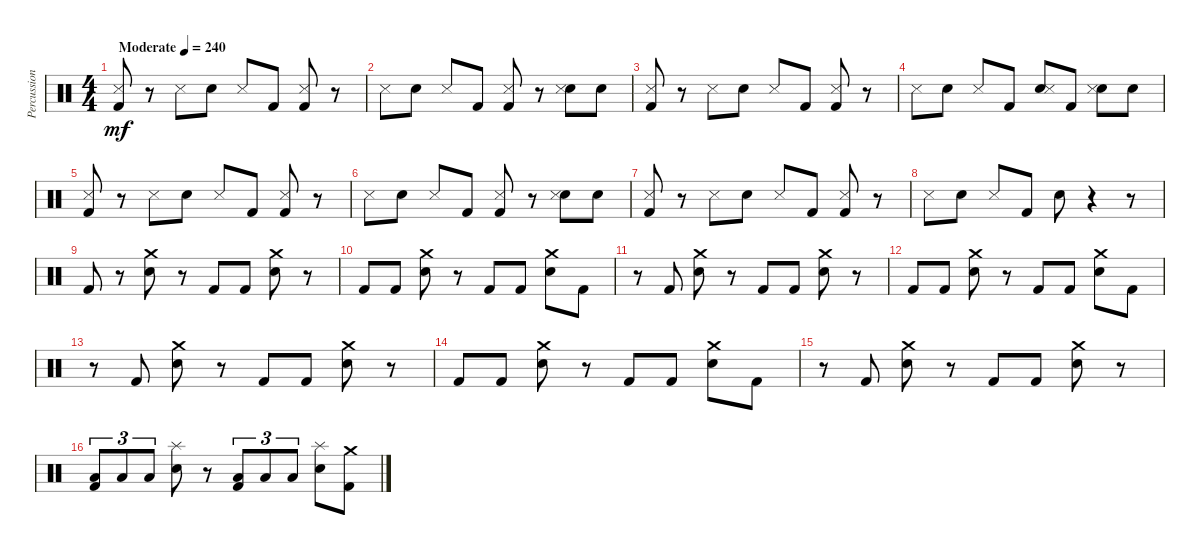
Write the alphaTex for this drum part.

\track ("Percussion" "Percussion") {instrument percussion}
\staff {score}
\articulation defaults
\ts (4 4)
\tempo (240 "Moderate")
\clef neutral
\ks c
("Kick (hit) 2" "Snare (side stick) 3").8{dy mf} r.8 "Snare (side stick) 3".8 "Electric Snare (hit)".8 "Snare (side stick) 3".8 "Kick (hit) 2".8 ("Kick (hit) 2" "Snare (side stick) 3").8 r.8 |
"Snare (side stick) 3".8 "Electric Snare (hit)".8 "Snare (side stick) 3".8 "Kick (hit) 2".8 ("Kick (hit) 2" "Snare (side stick) 3").8 r.8 ("Electric Snare (hit)" "Snare (side stick) 3").8 "Electric Snare (hit)".8 |
("Kick (hit) 2" "Snare (side stick) 3").8 r.8 "Snare (side stick) 3".8 "Electric Snare (hit)".8 "Snare (side stick) 3".8 "Kick (hit) 2".8 ("Kick (hit) 2" "Snare (side stick) 3").8 r.8 |
"Snare (side stick) 3".8 "Electric Snare (hit)".8 "Snare (side stick) 3".8 "Kick (hit) 2".8 ("Electric Snare (hit)" "Snare (side stick) 3").8 "Kick (hit) 2".8 ("Electric Snare (hit)" "Snare (side stick) 3").8 "Electric Snare (hit)".8 |
("Kick (hit) 2" "Snare (side stick) 3").8 r.8 "Snare (side stick) 3".8 "Electric Snare (hit)".8 "Snare (side stick) 3".8 "Kick (hit) 2".8 ("Kick (hit) 2" "Snare (side stick) 3").8 r.8 |
"Snare (side stick) 3".8 "Electric Snare (hit)".8 "Snare (side stick) 3".8 "Kick (hit) 2".8 ("Kick (hit) 2" "Snare (side stick) 3").8 r.8 ("Electric Snare (hit)" "Snare (side stick) 3").8 "Electric Snare (hit)".8 |
("Kick (hit) 2" "Snare (side stick) 3").8 r.8 "Snare (side stick) 3".8 "Electric Snare (hit)".8 "Snare (side stick) 3".8 "Kick (hit) 2".8 ("Kick (hit) 2" "Snare (side stick) 3").8 r.8 |
"Snare (side stick) 3".8 "Electric Snare (hit)".8 "Snare (side stick) 3".8 "Kick (hit) 2".8 "Electric Snare (hit)".8 r.4 r.8 |
"Kick (hit) 2".8 r.8 ("Electric Snare (hit)" "Crash medium (hit)").8 r.8 "Kick (hit) 2".8 "Kick (hit) 2".8 ("Electric Snare (hit)" "Crash medium (hit)").8 r.8 |
"Kick (hit) 2".8 "Kick (hit) 2".8 ("Electric Snare (hit)" "Crash medium (hit)").8 r.8 "Kick (hit) 2".8 "Kick (hit) 2".8 ("Electric Snare (hit)" "Crash medium (hit)").8 "Kick (hit) 2".8 |
r.8 "Kick (hit) 2".8 ("Electric Snare (hit)" "Crash medium (hit)").8 r.8 "Kick (hit) 2".8 "Kick (hit) 2".8 ("Electric Snare (hit)" "Crash medium (hit)").8 r.8 |
"Kick (hit) 2".8 "Kick (hit) 2".8 ("Electric Snare (hit)" "Crash medium (hit)").8 r.8 "Kick (hit) 2".8 "Kick (hit) 2".8 ("Electric Snare (hit)" "Crash medium (hit)").8 "Kick (hit) 2".8 |
r.8 "Kick (hit) 2".8 ("Electric Snare (hit)" "Crash medium (hit)").8 r.8 "Kick (hit) 2".8 "Kick (hit) 2".8 ("Electric Snare (hit)" "Crash medium (hit)").8 r.8 |
"Kick (hit) 2".8 "Kick (hit) 2".8 ("Electric Snare (hit)" "Crash medium (hit)").8 r.8 "Kick (hit) 2".8 "Kick (hit) 2".8 ("Electric Snare (hit)" "Crash medium (hit)").8 "Kick (hit) 2".8 |
r.8 "Kick (hit) 2".8 ("Electric Snare (hit)" "Crash medium (hit)").8 r.8 "Kick (hit) 2".8 "Kick (hit) 2".8 ("Electric Snare (hit)" "Crash medium (hit)").8 r.8 |
("Low Tom (hit)" "Kick (hit) 2").8{tu (3 2)} "Low Tom (hit)".8{tu (3 2)} "Low Tom (hit)".8{tu (3 2)} ("Electric Snare (hit)" "Splash (hit)").8 r.8 ("Kick (hit) 2" "Low Tom (hit)").8{tu (3 2)} "Low Tom (hit)".8{tu (3 2)} "Low Tom (hit)".8{tu (3 2)} ("Electric Snare (hit)" "Splash (hit)").8 ("Kick (hit) 2" "Crash medium (hit)").8
